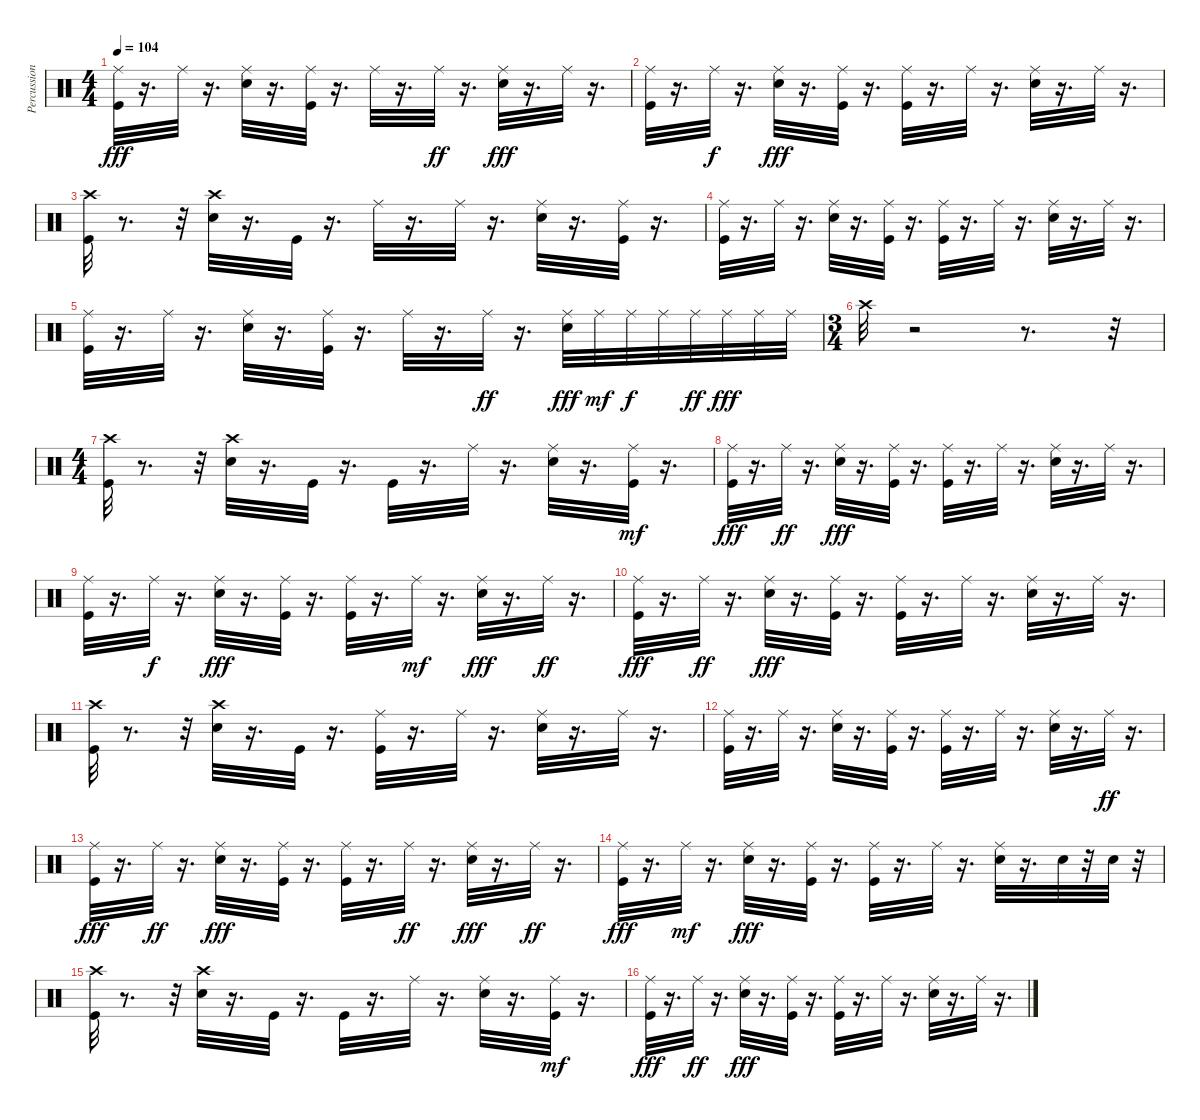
\track ("Percussion" "Percussion") {instrument percussion}
\staff {score}
\articulation defaults
\ts (4 4)
\tempo 104
\clef neutral
\ks c
("Ride (middle)" "Kick (hit)").32{dy fff} r.16{d} "Ride (middle)".32 r.16{d} ("Ride (middle)" "Snare (hit) 2").32 r.16{d} ("Ride (middle)" "Kick (hit)").32 r.16{d} "Ride (middle)".32 r.16{d} "Ride (middle)".32{dy ff} r.16{d} ("Ride (middle)" "Snare (hit) 2").32{dy fff} r.16{d} "Ride (middle)".32 r.16{d} |
("Ride (middle)" "Kick (hit)").32 r.16{d} "Ride (middle)".32{dy f} r.16{d} ("Ride (middle)" "Snare (hit) 2").32{dy fff} r.16{d} ("Ride (middle)" "Kick (hit)").32 r.16{d} ("Ride (middle)" "Kick (hit)").32 r.16{d} "Ride (middle)".32 r.16{d} ("Ride (middle)" "Snare (hit) 2").32 r.16{d} "Ride (middle)".32 r.16{d} |
("Crash high (hit)" "Kick (hit)").32 r.8{d} r.32 ("Crash high (hit)" "Snare (hit) 2").32 r.16{d} "Kick (hit)".32 r.16{d} "Ride (middle)".32 r.16{d} "Ride (middle)".32 r.16{d} ("Ride (middle)" "Snare (hit) 2").32 r.16{d} ("Ride (middle)" "Kick (hit)").32 r.16{d} |
("Ride (middle)" "Kick (hit)").32 r.16{d} "Ride (middle)".32 r.16{d} ("Ride (middle)" "Snare (hit) 2").32 r.16{d} ("Ride (middle)" "Kick (hit)").32 r.16{d} ("Ride (middle)" "Kick (hit)").32 r.16{d} "Ride (middle)".32 r.16{d} ("Ride (middle)" "Snare (hit) 2").32 r.16{d} "Ride (middle)".32 r.16{d} |
("Ride (middle)" "Kick (hit)").32 r.16{d} "Ride (middle)".32 r.16{d} ("Ride (middle)" "Snare (hit) 2").32 r.16{d} ("Ride (middle)" "Kick (hit)").32 r.16{d} "Ride (middle)".32 r.16{d} "Ride (middle)".32{dy ff} r.16{d} ("Ride (middle)" "Snare (hit) 2").32{dy fff} "Ride (middle)".32{dy mf} "Ride (middle)".32{dy f} "Ride (middle)".32 "Ride (middle)".32{dy ff} "Ride (middle)".32{dy fff} "Ride (middle)".32 "Ride (middle)".32 |
\ts (3 4)
"Crash high (hit)".32 r.2 r.8{d} r.32 |
\ts (4 4)
("Crash high (hit)" "Kick (hit)").32 r.8{d} r.32 ("Crash high (hit)" "Snare (hit) 2").32 r.16{d} "Kick (hit)".32 r.16{d} "Kick (hit)".32 r.16{d} "Ride (middle)".32 r.16{d} ("Ride (middle)" "Snare (hit) 2").32 r.16{d} ("Ride (middle)" "Kick (hit)").32{dy mf} r.16{d} |
("Ride (middle)" "Kick (hit)").32{dy fff} r.16{d} "Ride (middle)".32{dy ff} r.16{d} ("Ride (middle)" "Snare (hit) 2").32{dy fff} r.16{d} ("Ride (middle)" "Kick (hit)").32 r.16{d} ("Ride (middle)" "Kick (hit)").32 r.16{d} "Ride (middle)".32 r.16{d} ("Ride (middle)" "Snare (hit) 2").32 r.16{d} "Ride (middle)".32 r.16{d} |
("Ride (middle)" "Kick (hit)").32 r.16{d} "Ride (middle)".32{dy f} r.16{d} ("Ride (middle)" "Snare (hit) 2").32{dy fff} r.16{d} ("Ride (middle)" "Kick (hit)").32 r.16{d} ("Ride (middle)" "Kick (hit)").32 r.16{d} "Ride (middle)".32{dy mf} r.16{d} ("Ride (middle)" "Snare (hit) 2").32{dy fff} r.16{d} "Ride (middle)".32{dy ff} r.16{d} |
("Ride (middle)" "Kick (hit)").32{dy fff} r.16{d} "Ride (middle)".32{dy ff} r.16{d} ("Ride (middle)" "Snare (hit) 2").32{dy fff} r.16{d} ("Ride (middle)" "Kick (hit)").32 r.16{d} ("Ride (middle)" "Kick (hit)").32 r.16{d} "Ride (middle)".32 r.16{d} ("Ride (middle)" "Snare (hit) 2").32 r.16{d} "Ride (middle)".32 r.16{d} |
("Crash high (hit)" "Kick (hit)").32 r.8{d} r.32 ("Crash high (hit)" "Snare (hit) 2").32 r.16{d} "Kick (hit)".32 r.16{d} ("Ride (middle)" "Kick (hit)").32 r.16{d} "Ride (middle)".32 r.16{d} ("Ride (middle)" "Snare (hit) 2").32 r.16{d} "Ride (middle)".32 r.16{d} |
("Ride (middle)" "Kick (hit)").32 r.16{d} "Ride (middle)".32 r.16{d} ("Ride (middle)" "Snare (hit) 2").32 r.16{d} ("Ride (middle)" "Kick (hit)").32 r.16{d} ("Ride (middle)" "Kick (hit)").32 r.16{d} "Ride (middle)".32 r.16{d} ("Ride (middle)" "Snare (hit) 2").32 r.16{d} "Ride (middle)".32{dy ff} r.16{d} |
("Ride (middle)" "Kick (hit)").32{dy fff} r.16{d} "Ride (middle)".32{dy ff} r.16{d} ("Ride (middle)" "Snare (hit) 2").32{dy fff} r.16{d} ("Ride (middle)" "Kick (hit)").32 r.16{d} ("Ride (middle)" "Kick (hit)").32 r.16{d} "Ride (middle)".32{dy ff} r.16{d} ("Ride (middle)" "Snare (hit) 2").32{dy fff} r.16{d} "Ride (middle)".32{dy ff} r.16{d} |
("Ride (middle)" "Kick (hit)").32{dy fff} r.16{d} "Ride (middle)".32{dy mf} r.16{d} ("Ride (middle)" "Snare (hit) 2").32{dy fff} r.16{d} ("Ride (middle)" "Kick (hit)").32 r.16{d} ("Ride (middle)" "Kick (hit)").32 r.16{d} "Ride (middle)".32 r.16{d} ("Ride (middle)" "Snare (hit) 2").32 r.16{d} "Snare (hit) 2".32 r.32 "Snare (hit) 2".32 r.32 |
("Crash high (hit)" "Kick (hit)").32 r.8{d} r.32 ("Crash high (hit)" "Snare (hit) 2").32 r.16{d} "Kick (hit)".32 r.16{d} "Kick (hit)".32 r.16{d} "Ride (middle)".32 r.16{d} ("Ride (middle)" "Snare (hit) 2").32 r.16{d} ("Ride (middle)" "Kick (hit)").32{dy mf} r.16{d} |
("Ride (middle)" "Kick (hit)").32{dy fff} r.16{d} "Ride (middle)".32{dy ff} r.16{d} ("Ride (middle)" "Snare (hit) 2").32{dy fff} r.16{d} ("Ride (middle)" "Kick (hit)").32 r.16{d} ("Ride (middle)" "Kick (hit)").32 r.16{d} "Ride (middle)".32 r.16{d} ("Ride (middle)" "Snare (hit) 2").32 r.16{d} "Ride (middle)".32 r.16{d}
